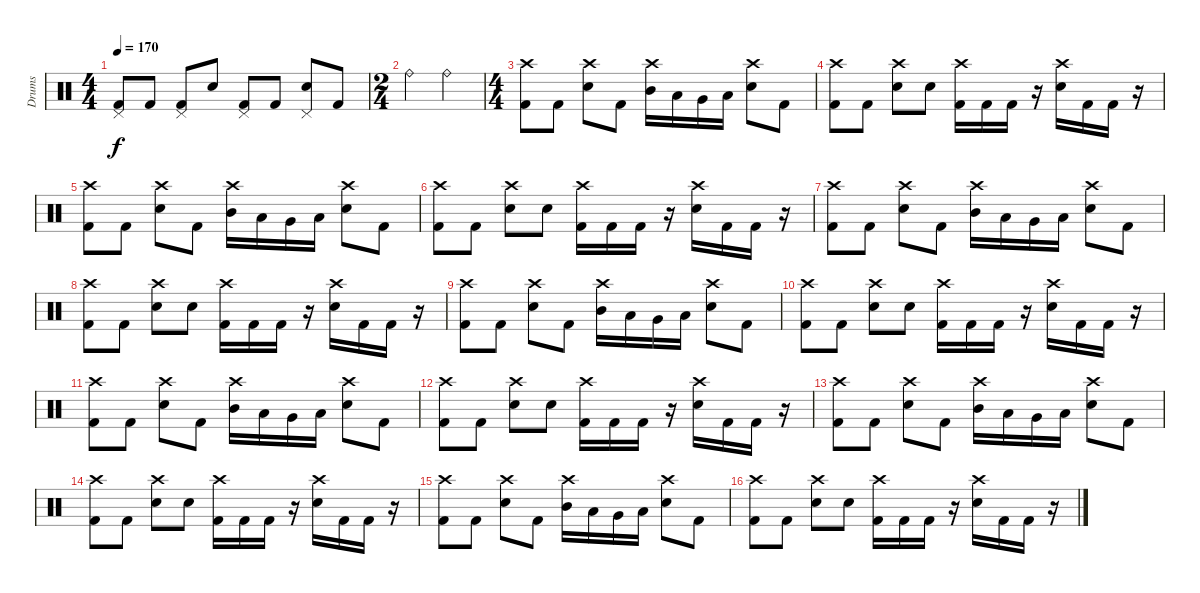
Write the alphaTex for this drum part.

\track ("Drums" "Drums") {instrument percussion}
\staff {score}
\articulation defaults
\ts (4 4)
\tempo 170
\clef neutral
\ks c
("Pedal Hi-Hat (hit)" "Kick (hit) 2").8{dy f} "Kick (hit) 2".8 ("Pedal Hi-Hat (hit)" "Kick (hit) 2").8 "Electric Snare (hit)".8 ("Pedal Hi-Hat (hit)" "Kick (hit) 2").8 "Kick (hit) 2".8 ("Pedal Hi-Hat (hit)" "Electric Snare (hit)").8 "Kick (hit) 2".8 |
\ts (2 4)
"Ride (bell)".4 "Ride (bell)".4 |
\ts (4 4)
("Crash high (hit)" "Kick (hit) 2").8 "Kick (hit) 2".8 ("Crash high (hit)" "Electric Snare (hit)").8 "Kick (hit) 2".8 ("Crash high (hit)" "Mid Tom (hit)").16 "Low Tom (hit)".16 "Very Low Tom (hit)".16 "Low Tom (hit)".16 ("Crash high (hit)" "Electric Snare (hit)").8 "Kick (hit) 2".8 |
("Crash high (hit)" "Kick (hit) 2").8 "Kick (hit) 2".8 ("Crash high (hit)" "Electric Snare (hit)").8 "Electric Snare (hit)".8 ("Crash high (hit)" "Kick (hit) 2").16 "Kick (hit) 2".16 "Kick (hit) 2".16 r.16 ("Crash high (hit)" "Electric Snare (hit)").16 "Kick (hit) 2".16 "Kick (hit) 2".16 r.16 |
("Crash high (hit)" "Kick (hit) 2").8 "Kick (hit) 2".8 ("Crash high (hit)" "Electric Snare (hit)").8 "Kick (hit) 2".8 ("Crash high (hit)" "Mid Tom (hit)").16 "Low Tom (hit)".16 "Very Low Tom (hit)".16 "Low Tom (hit)".16 ("Crash high (hit)" "Electric Snare (hit)").8 "Kick (hit) 2".8 |
("Crash high (hit)" "Kick (hit) 2").8 "Kick (hit) 2".8 ("Crash high (hit)" "Electric Snare (hit)").8 "Electric Snare (hit)".8 ("Crash high (hit)" "Kick (hit) 2").16 "Kick (hit) 2".16 "Kick (hit) 2".16 r.16 ("Crash high (hit)" "Electric Snare (hit)").16 "Kick (hit) 2".16 "Kick (hit) 2".16 r.16 |
("Crash high (hit)" "Kick (hit) 2").8 "Kick (hit) 2".8 ("Crash high (hit)" "Electric Snare (hit)").8 "Kick (hit) 2".8 ("Crash high (hit)" "Mid Tom (hit)").16 "Low Tom (hit)".16 "Very Low Tom (hit)".16 "Low Tom (hit)".16 ("Crash high (hit)" "Electric Snare (hit)").8 "Kick (hit) 2".8 |
("Crash high (hit)" "Kick (hit) 2").8 "Kick (hit) 2".8 ("Crash high (hit)" "Electric Snare (hit)").8 "Electric Snare (hit)".8 ("Crash high (hit)" "Kick (hit) 2").16 "Kick (hit) 2".16 "Kick (hit) 2".16 r.16 ("Crash high (hit)" "Electric Snare (hit)").16 "Kick (hit) 2".16 "Kick (hit) 2".16 r.16 |
("Crash high (hit)" "Kick (hit) 2").8 "Kick (hit) 2".8 ("Crash high (hit)" "Electric Snare (hit)").8 "Kick (hit) 2".8 ("Crash high (hit)" "Mid Tom (hit)").16 "Low Tom (hit)".16 "Very Low Tom (hit)".16 "Low Tom (hit)".16 ("Crash high (hit)" "Electric Snare (hit)").8 "Kick (hit) 2".8 |
("Crash high (hit)" "Kick (hit) 2").8 "Kick (hit) 2".8 ("Crash high (hit)" "Electric Snare (hit)").8 "Electric Snare (hit)".8 ("Crash high (hit)" "Kick (hit) 2").16 "Kick (hit) 2".16 "Kick (hit) 2".16 r.16 ("Crash high (hit)" "Electric Snare (hit)").16 "Kick (hit) 2".16 "Kick (hit) 2".16 r.16 |
("Crash high (hit)" "Kick (hit) 2").8 "Kick (hit) 2".8 ("Crash high (hit)" "Electric Snare (hit)").8 "Kick (hit) 2".8 ("Crash high (hit)" "Mid Tom (hit)").16 "Low Tom (hit)".16 "Very Low Tom (hit)".16 "Low Tom (hit)".16 ("Crash high (hit)" "Electric Snare (hit)").8 "Kick (hit) 2".8 |
("Crash high (hit)" "Kick (hit) 2").8 "Kick (hit) 2".8 ("Crash high (hit)" "Electric Snare (hit)").8 "Electric Snare (hit)".8 ("Crash high (hit)" "Kick (hit) 2").16 "Kick (hit) 2".16 "Kick (hit) 2".16 r.16 ("Crash high (hit)" "Electric Snare (hit)").16 "Kick (hit) 2".16 "Kick (hit) 2".16 r.16 |
("Crash high (hit)" "Kick (hit) 2").8 "Kick (hit) 2".8 ("Crash high (hit)" "Electric Snare (hit)").8 "Kick (hit) 2".8 ("Crash high (hit)" "Mid Tom (hit)").16 "Low Tom (hit)".16 "Very Low Tom (hit)".16 "Low Tom (hit)".16 ("Crash high (hit)" "Electric Snare (hit)").8 "Kick (hit) 2".8 |
("Crash high (hit)" "Kick (hit) 2").8 "Kick (hit) 2".8 ("Crash high (hit)" "Electric Snare (hit)").8 "Electric Snare (hit)".8 ("Crash high (hit)" "Kick (hit) 2").16 "Kick (hit) 2".16 "Kick (hit) 2".16 r.16 ("Crash high (hit)" "Electric Snare (hit)").16 "Kick (hit) 2".16 "Kick (hit) 2".16 r.16 |
("Crash high (hit)" "Kick (hit) 2").8 "Kick (hit) 2".8 ("Crash high (hit)" "Electric Snare (hit)").8 "Kick (hit) 2".8 ("Crash high (hit)" "Mid Tom (hit)").16 "Low Tom (hit)".16 "Very Low Tom (hit)".16 "Low Tom (hit)".16 ("Crash high (hit)" "Electric Snare (hit)").8 "Kick (hit) 2".8 |
("Crash high (hit)" "Kick (hit) 2").8 "Kick (hit) 2".8 ("Crash high (hit)" "Electric Snare (hit)").8 "Electric Snare (hit)".8 ("Crash high (hit)" "Kick (hit) 2").16 "Kick (hit) 2".16 "Kick (hit) 2".16 r.16 ("Crash high (hit)" "Electric Snare (hit)").16 "Kick (hit) 2".16 "Kick (hit) 2".16 r.16
